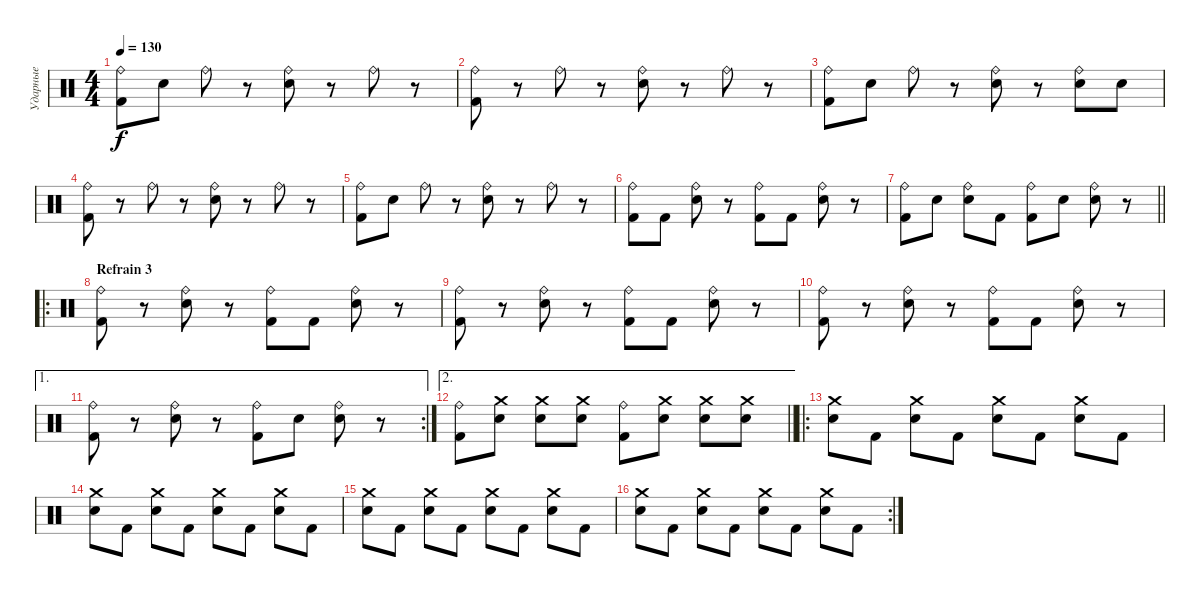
\track ("Ударные" "Ударные") {instrument percussion}
\staff {score}
\articulation defaults
\ts (4 4)
\tempo 130
\clef neutral
\ks c
("Ride (bell)" "Kick (hit) 2").8{dy f} "Electric Snare (hit)".8 "Ride (bell)".8 r.8 ("Ride (bell)" "Electric Snare (hit)").8 r.8 "Ride (bell)".8 r.8 |
("Ride (bell)" "Kick (hit) 2").8 r.8 "Ride (bell)".8 r.8 ("Ride (bell)" "Electric Snare (hit)").8 r.8 "Ride (bell)".8 r.8 |
("Ride (bell)" "Kick (hit) 2").8 "Electric Snare (hit)".8 "Ride (bell)".8 r.8 ("Ride (bell)" "Electric Snare (hit)").8 r.8 ("Ride (bell)" "Electric Snare (hit)").8 "Electric Snare (hit)".8 |
("Ride (bell)" "Kick (hit) 2").8 r.8 "Ride (bell)".8 r.8 ("Ride (bell)" "Electric Snare (hit)").8 r.8 "Ride (bell)".8 r.8 |
("Ride (bell)" "Kick (hit) 2").8 "Electric Snare (hit)".8 "Ride (bell)".8 r.8 ("Ride (bell)" "Electric Snare (hit)").8 r.8 "Ride (bell)".8 r.8 |
("Ride (bell)" "Kick (hit) 2").8 "Kick (hit) 2".8 ("Ride (bell)" "Electric Snare (hit)").8 r.8 ("Ride (bell)" "Kick (hit) 2").8 "Kick (hit) 2".8 ("Ride (bell)" "Electric Snare (hit)").8 r.8 |
\barLineRight lightlight
("Ride (bell)" "Kick (hit) 2").8 "Electric Snare (hit)".8 ("Ride (bell)" "Electric Snare (hit)").8 "Kick (hit) 2".8 ("Ride (bell)" "Kick (hit) 2").8 "Electric Snare (hit)".8 ("Ride (bell)" "Electric Snare (hit)").8 r.8 |
\ro
\section ("" "Refrain 3")
("Ride (bell)" "Kick (hit) 2").8 r.8 ("Ride (bell)" "Electric Snare (hit)").8 r.8 ("Ride (bell)" "Kick (hit) 2").8 "Kick (hit) 2".8 ("Ride (bell)" "Electric Snare (hit)").8 r.8 |
("Ride (bell)" "Kick (hit) 2").8 r.8 ("Ride (bell)" "Electric Snare (hit)").8 r.8 ("Ride (bell)" "Kick (hit) 2").8 "Kick (hit) 2".8 ("Ride (bell)" "Electric Snare (hit)").8 r.8 |
("Ride (bell)" "Kick (hit) 2").8 r.8 ("Ride (bell)" "Electric Snare (hit)").8 r.8 ("Ride (bell)" "Kick (hit) 2").8 "Kick (hit) 2".8 ("Ride (bell)" "Electric Snare (hit)").8 r.8 |
\ae 1
\rc 2
("Ride (bell)" "Kick (hit) 2").8 r.8 ("Ride (bell)" "Electric Snare (hit)").8 r.8 ("Ride (bell)" "Kick (hit) 2").8 "Electric Snare (hit)".8 ("Ride (bell)" "Electric Snare (hit)").8 r.8 |
\ae 2
\barLineRight lightlight
("Ride (bell)" "Kick (hit) 2").8 ("Crash medium (hit)" "Electric Snare (hit)").8 ("Crash medium (hit)" "Electric Snare (hit)").8 ("Crash medium (hit)" "Electric Snare (hit)").8 ("Ride (bell)" "Kick (hit) 2").8 ("Crash medium (hit)" "Electric Snare (hit)").8 ("Crash medium (hit)" "Electric Snare (hit)").8 ("Crash medium (hit)" "Electric Snare (hit)").8 |
\ro
("Crash medium (hit)" "Electric Snare (hit)").8 "Kick (hit) 2".8 ("Crash medium (hit)" "Electric Snare (hit)").8 "Kick (hit) 2".8 ("Crash medium (hit)" "Electric Snare (hit)").8 "Kick (hit) 2".8 ("Crash medium (hit)" "Electric Snare (hit)").8 "Kick (hit) 2".8 |
("Crash medium (hit)" "Electric Snare (hit)").8 "Kick (hit) 2".8 ("Crash medium (hit)" "Electric Snare (hit)").8 "Kick (hit) 2".8 ("Crash medium (hit)" "Electric Snare (hit)").8 "Kick (hit) 2".8 ("Crash medium (hit)" "Electric Snare (hit)").8 "Kick (hit) 2".8 |
("Crash medium (hit)" "Electric Snare (hit)").8 "Kick (hit) 2".8 ("Crash medium (hit)" "Electric Snare (hit)").8 "Kick (hit) 2".8 ("Crash medium (hit)" "Electric Snare (hit)").8 "Kick (hit) 2".8 ("Crash medium (hit)" "Electric Snare (hit)").8 "Kick (hit) 2".8 |
\rc 2
("Crash medium (hit)" "Electric Snare (hit)").8 "Kick (hit) 2".8 ("Crash medium (hit)" "Electric Snare (hit)").8 "Kick (hit) 2".8 ("Crash medium (hit)" "Electric Snare (hit)").8 "Kick (hit) 2".8 ("Crash medium (hit)" "Electric Snare (hit)").8 "Kick (hit) 2".8
